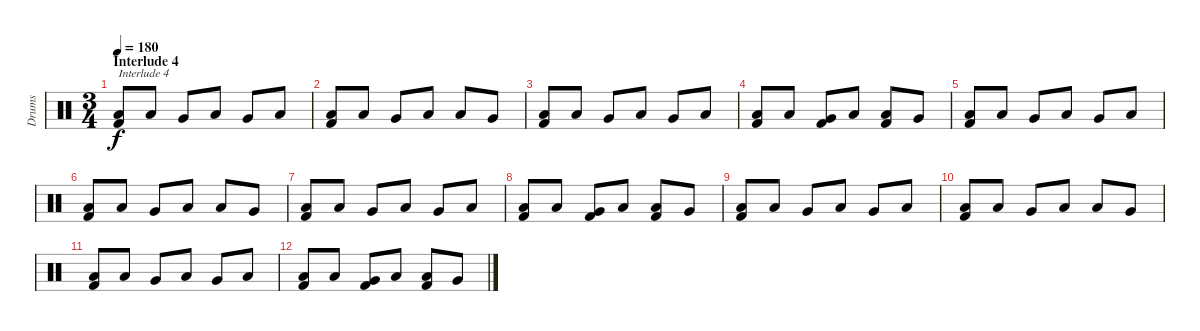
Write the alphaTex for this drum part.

\track ("Drums" "Drums") {instrument percussion}
\staff {score}
\articulation defaults
\ts (3 4)
\section ("" "Interlude 4")
\tempo 180
\clef neutral
\ks c
("Kick (hit) 2" "Low Tom (hit)").8{txt "Interlude 4" dy f} "Low Floor Tom (hit)".8 "Very Low Tom (hit)".8 "Low Tom (hit)".8 "Very Low Tom (hit)".8 "Low Tom (hit)".8 |
("Kick (hit) 2" "Low Floor Tom (hit)").8 "Low Tom (hit)".8 "Very Low Tom (hit)".8 "Low Tom (hit)".8 "Low Floor Tom (hit)".8 "Very Low Tom (hit)".8 |
("Kick (hit) 2" "Low Tom (hit)").8 "Low Floor Tom (hit)".8 "Very Low Tom (hit)".8 "Low Tom (hit)".8 "Very Low Tom (hit)".8 "Low Tom (hit)".8 |
("Kick (hit) 2" "Low Floor Tom (hit)").8 "Low Tom (hit)".8 ("Kick (hit) 2" "Very Low Tom (hit)").8 "Low Tom (hit)".8 ("Kick (hit) 2" "Low Floor Tom (hit)").8 "Very Low Tom (hit)".8 |
("Kick (hit) 2" "Low Tom (hit)").8 "Low Floor Tom (hit)".8 "Very Low Tom (hit)".8 "Low Tom (hit)".8 "Very Low Tom (hit)".8 "Low Tom (hit)".8 |
("Kick (hit) 2" "Low Floor Tom (hit)").8 "Low Tom (hit)".8 "Very Low Tom (hit)".8 "Low Tom (hit)".8 "Low Floor Tom (hit)".8 "Very Low Tom (hit)".8 |
("Kick (hit) 2" "Low Tom (hit)").8 "Low Floor Tom (hit)".8 "Very Low Tom (hit)".8 "Low Tom (hit)".8 "Very Low Tom (hit)".8 "Low Tom (hit)".8 |
("Kick (hit) 2" "Low Floor Tom (hit)").8 "Low Tom (hit)".8 ("Kick (hit) 2" "Very Low Tom (hit)").8 "Low Tom (hit)".8 ("Kick (hit) 2" "Low Floor Tom (hit)").8 "Very Low Tom (hit)".8 |
("Kick (hit) 2" "Low Tom (hit)").8{volume 0} "Low Floor Tom (hit)".8 "Very Low Tom (hit)".8 "Low Tom (hit)".8 "Very Low Tom (hit)".8 "Low Tom (hit)".8 |
("Kick (hit) 2" "Low Floor Tom (hit)").8 "Low Tom (hit)".8 "Very Low Tom (hit)".8 "Low Tom (hit)".8 "Low Floor Tom (hit)".8 "Very Low Tom (hit)".8 |
("Kick (hit) 2" "Low Tom (hit)").8 "Low Floor Tom (hit)".8 "Very Low Tom (hit)".8 "Low Tom (hit)".8 "Very Low Tom (hit)".8 "Low Tom (hit)".8 |
("Kick (hit) 2" "Low Floor Tom (hit)").8 "Low Tom (hit)".8 ("Kick (hit) 2" "Very Low Tom (hit)").8 "Low Tom (hit)".8 ("Kick (hit) 2" "Low Floor Tom (hit)").8 "Very Low Tom (hit)".8
